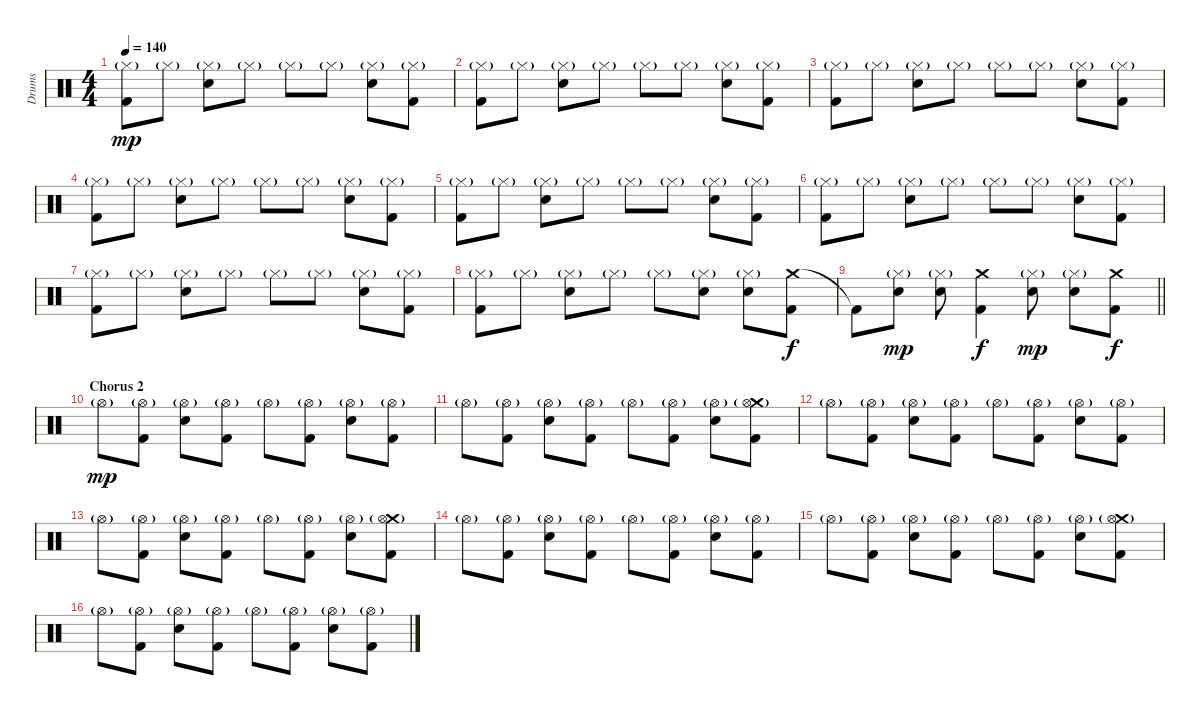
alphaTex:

\track ("Drums" "Drums") {instrument percussion}
\staff {score}
\articulation defaults
\ts (4 4)
\tempo 140
\clef neutral
\ks c
("Hi-Hat (closed)"{g} "Kick (hit) 2").8{dy mp} "Hi-Hat (closed)"{g}.8 ("Hi-Hat (closed)"{g} "Electric Snare (hit)").8 "Hi-Hat (closed)"{g}.8 "Hi-Hat (closed)"{g}.8 "Hi-Hat (closed)"{g}.8 ("Hi-Hat (closed)"{g} "Electric Snare (hit)").8 ("Hi-Hat (closed)"{g} "Kick (hit) 2").8 |
("Hi-Hat (closed)"{g} "Kick (hit) 2").8 "Hi-Hat (closed)"{g}.8 ("Hi-Hat (closed)"{g} "Electric Snare (hit)").8 "Hi-Hat (closed)"{g}.8 "Hi-Hat (closed)"{g}.8 "Hi-Hat (closed)"{g}.8 ("Hi-Hat (closed)"{g} "Electric Snare (hit)").8 ("Hi-Hat (closed)"{g} "Kick (hit) 2").8 |
("Hi-Hat (closed)"{g} "Kick (hit) 2").8 "Hi-Hat (closed)"{g}.8 ("Hi-Hat (closed)"{g} "Electric Snare (hit)").8 "Hi-Hat (closed)"{g}.8 "Hi-Hat (closed)"{g}.8 "Hi-Hat (closed)"{g}.8 ("Hi-Hat (closed)"{g} "Electric Snare (hit)").8 ("Hi-Hat (closed)"{g} "Kick (hit) 2").8 |
("Hi-Hat (closed)"{g} "Kick (hit) 2").8 "Hi-Hat (closed)"{g}.8 ("Hi-Hat (closed)"{g} "Electric Snare (hit)").8 "Hi-Hat (closed)"{g}.8 "Hi-Hat (closed)"{g}.8 "Hi-Hat (closed)"{g}.8 ("Hi-Hat (closed)"{g} "Electric Snare (hit)").8 ("Hi-Hat (closed)"{g} "Kick (hit) 2").8 |
("Hi-Hat (closed)"{g} "Kick (hit) 2").8 "Hi-Hat (closed)"{g}.8 ("Hi-Hat (closed)"{g} "Electric Snare (hit)").8 "Hi-Hat (closed)"{g}.8 "Hi-Hat (closed)"{g}.8 "Hi-Hat (closed)"{g}.8 ("Hi-Hat (closed)"{g} "Electric Snare (hit)").8 ("Hi-Hat (closed)"{g} "Kick (hit) 2").8 |
("Hi-Hat (closed)"{g} "Kick (hit) 2").8 "Hi-Hat (closed)"{g}.8 ("Hi-Hat (closed)"{g} "Electric Snare (hit)").8 "Hi-Hat (closed)"{g}.8 "Hi-Hat (closed)"{g}.8 "Hi-Hat (closed)"{g}.8 ("Hi-Hat (closed)"{g} "Electric Snare (hit)").8 ("Hi-Hat (closed)"{g} "Kick (hit) 2").8 |
("Hi-Hat (closed)"{g} "Kick (hit) 2").8 "Hi-Hat (closed)"{g}.8 ("Hi-Hat (closed)"{g} "Electric Snare (hit)").8 "Hi-Hat (closed)"{g}.8 "Hi-Hat (closed)"{g}.8 "Hi-Hat (closed)"{g}.8 ("Hi-Hat (closed)"{g} "Electric Snare (hit)").8 ("Hi-Hat (closed)"{g} "Kick (hit) 2").8 |
("Hi-Hat (closed)"{g} "Kick (hit) 2").8 "Hi-Hat (closed)"{g}.8 ("Hi-Hat (closed)"{g} "Electric Snare (hit)").8 "Hi-Hat (closed)"{g}.8 "Hi-Hat (closed)"{g}.8 ("Hi-Hat (closed)"{g} "Electric Snare (hit)").8 ("Hi-Hat (closed)"{g} "Electric Snare (hit)").8 ("Crash medium (hit)" "Kick (hit) 2").8{dy f} |
\barLineRight lightlight "Kick (hit) 2"{t}.8
("Hi-Hat (closed)"{g} "Electric Snare (hit)").8{dy mp} ("Hi-Hat (closed)"{g} "Electric Snare (hit)").8 ("Crash medium (hit)" "Kick (hit) 2").4{dy f} ("Hi-Hat (closed)"{g} "Electric Snare (hit)").8{dy mp} ("Hi-Hat (closed)"{g} "Electric Snare (hit)").8 ("Crash medium (hit)" "Kick (hit) 2").8{dy f} |
\section ("" "Chorus 2")
"Hi-Hat (open)"{g}.8{dy mp} ("Hi-Hat (open)"{g} "Kick (hit) 2").8 ("Hi-Hat (open)"{g} "Electric Snare (hit)").8 ("Hi-Hat (open)"{g} "Kick (hit) 2").8 "Hi-Hat (open)"{g}.8 ("Hi-Hat (open)"{g} "Kick (hit) 2").8 ("Hi-Hat (open)"{g} "Electric Snare (hit)").8 ("Hi-Hat (open)"{g} "Kick (hit) 2").8 |
"Hi-Hat (open)"{g}.8 ("Hi-Hat (open)"{g} "Kick (hit) 2").8 ("Hi-Hat (open)"{g} "Electric Snare (hit)").8 ("Hi-Hat (open)"{g} "Kick (hit) 2").8 "Hi-Hat (open)"{g}.8 ("Hi-Hat (open)"{g} "Kick (hit) 2").8 ("Hi-Hat (open)"{g} "Electric Snare (hit)").8 ("Crash medium (hit)" "Hi-Hat (open)"{g} "Kick (hit) 2").8 |
"Hi-Hat (open)"{g}.8 ("Hi-Hat (open)"{g} "Kick (hit) 2").8 ("Hi-Hat (open)"{g} "Electric Snare (hit)").8 ("Hi-Hat (open)"{g} "Kick (hit) 2").8 "Hi-Hat (open)"{g}.8 ("Hi-Hat (open)"{g} "Kick (hit) 2").8 ("Hi-Hat (open)"{g} "Electric Snare (hit)").8 ("Hi-Hat (open)"{g} "Kick (hit) 2").8 |
"Hi-Hat (open)"{g}.8 ("Hi-Hat (open)"{g} "Kick (hit) 2").8 ("Hi-Hat (open)"{g} "Electric Snare (hit)").8 ("Hi-Hat (open)"{g} "Kick (hit) 2").8 "Hi-Hat (open)"{g}.8 ("Hi-Hat (open)"{g} "Kick (hit) 2").8 ("Hi-Hat (open)"{g} "Electric Snare (hit)").8 ("Crash medium (hit)" "Hi-Hat (open)"{g} "Kick (hit) 2").8 |
"Hi-Hat (open)"{g}.8 ("Hi-Hat (open)"{g} "Kick (hit) 2").8 ("Hi-Hat (open)"{g} "Electric Snare (hit)").8 ("Hi-Hat (open)"{g} "Kick (hit) 2").8 "Hi-Hat (open)"{g}.8 ("Hi-Hat (open)"{g} "Kick (hit) 2").8 ("Hi-Hat (open)"{g} "Electric Snare (hit)").8 ("Hi-Hat (open)"{g} "Kick (hit) 2").8 |
"Hi-Hat (open)"{g}.8 ("Hi-Hat (open)"{g} "Kick (hit) 2").8 ("Hi-Hat (open)"{g} "Electric Snare (hit)").8 ("Hi-Hat (open)"{g} "Kick (hit) 2").8 "Hi-Hat (open)"{g}.8 ("Hi-Hat (open)"{g} "Kick (hit) 2").8 ("Hi-Hat (open)"{g} "Electric Snare (hit)").8 ("Crash medium (hit)" "Hi-Hat (open)"{g} "Kick (hit) 2").8 |
"Hi-Hat (open)"{g}.8 ("Hi-Hat (open)"{g} "Kick (hit) 2").8 ("Hi-Hat (open)"{g} "Electric Snare (hit)").8 ("Hi-Hat (open)"{g} "Kick (hit) 2").8 "Hi-Hat (open)"{g}.8 ("Hi-Hat (open)"{g} "Kick (hit) 2").8 ("Hi-Hat (open)"{g} "Electric Snare (hit)").8 ("Hi-Hat (open)"{g} "Kick (hit) 2").8
